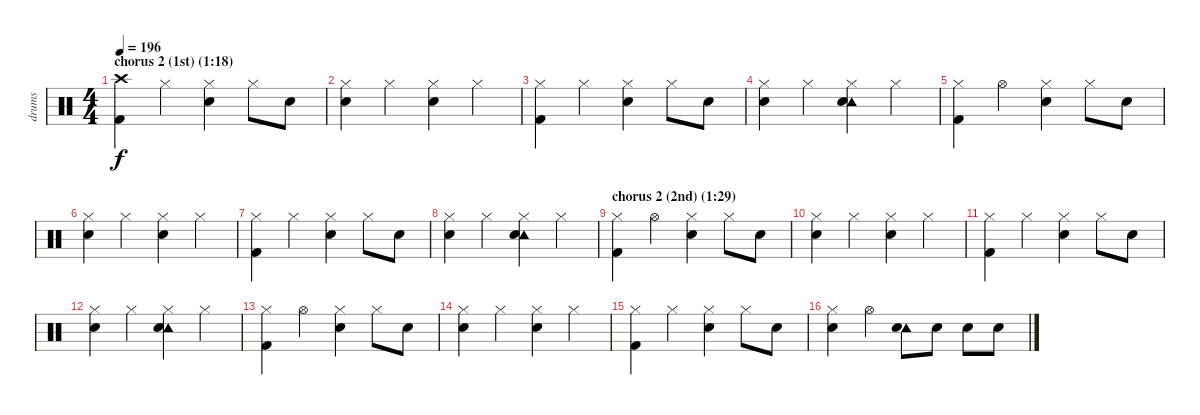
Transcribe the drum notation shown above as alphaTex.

\track ("drums" "drums") {instrument percussion}
\staff {score}
\articulation defaults
\ts (4 4)
\section ("" "chorus 2 (1st) (1:18)")
\tempo 196
\clef neutral
\ks c
("Crash high (hit)" "Kick (hit) 2").4{dy f} "Hi-Hat (closed)".4 ("Hi-Hat (closed)" "Snare (hit) 2").4 "Hi-Hat (closed)".8 "Snare (hit) 2".8 |
("Hi-Hat (closed)" "Snare (hit) 2").4 "Hi-Hat (closed)".4 ("Hi-Hat (closed)" "Snare (hit) 2").4 "Hi-Hat (closed)".4 |
("Hi-Hat (closed)" "Kick (hit) 2").4 "Hi-Hat (closed)".4 ("Hi-Hat (closed)" "Snare (hit) 2").4 "Hi-Hat (closed)".8 "Snare (hit) 2".8 |
("Hi-Hat (closed)" "Snare (hit) 2").4 "Hi-Hat (closed)".4 ("Hi-Hat (closed)" "Tambourine (hit)" "Snare (hit) 2").4 "Hi-Hat (closed)".4 |
("Hi-Hat (closed)" "Kick (hit) 2").4 "Hi-Hat (open)".4 ("Hi-Hat (closed)" "Snare (hit) 2").4 "Hi-Hat (closed)".8 "Snare (hit) 2".8 |
("Hi-Hat (closed)" "Snare (hit) 2").4 "Hi-Hat (closed)".4 ("Hi-Hat (closed)" "Snare (hit) 2").4 "Hi-Hat (closed)".4 |
("Hi-Hat (closed)" "Kick (hit) 2").4 "Hi-Hat (closed)".4 ("Hi-Hat (closed)" "Snare (hit) 2").4 "Hi-Hat (closed)".8 "Snare (hit) 2".8 |
("Hi-Hat (closed)" "Snare (hit) 2").4 "Hi-Hat (closed)".4 ("Hi-Hat (closed)" "Tambourine (hit)" "Snare (hit) 2").4 "Hi-Hat (closed)".4 |
\section ("" "chorus 2 (2nd) (1:29)")
("Hi-Hat (closed)" "Kick (hit) 2").4 "Hi-Hat (open)".4 ("Hi-Hat (closed)" "Snare (hit) 2").4 "Hi-Hat (closed)".8 "Snare (hit) 2".8 |
("Hi-Hat (closed)" "Snare (hit) 2").4 "Hi-Hat (closed)".4 ("Hi-Hat (closed)" "Snare (hit) 2").4 "Hi-Hat (closed)".4 |
("Hi-Hat (closed)" "Kick (hit) 2").4 "Hi-Hat (closed)".4 ("Hi-Hat (closed)" "Snare (hit) 2").4 "Hi-Hat (closed)".8 "Snare (hit) 2".8 |
("Hi-Hat (closed)" "Snare (hit) 2").4 "Hi-Hat (closed)".4 ("Hi-Hat (closed)" "Tambourine (hit)" "Snare (hit) 2").4 "Hi-Hat (closed)".4 |
("Hi-Hat (closed)" "Kick (hit) 2").4 "Hi-Hat (open)".4 ("Hi-Hat (closed)" "Snare (hit) 2").4 "Hi-Hat (closed)".8 "Snare (hit) 2".8 |
("Hi-Hat (closed)" "Snare (hit) 2").4 "Hi-Hat (closed)".4 ("Hi-Hat (closed)" "Snare (hit) 2").4 "Hi-Hat (closed)".4 |
("Hi-Hat (closed)" "Kick (hit) 2").4 "Hi-Hat (closed)".4 ("Hi-Hat (closed)" "Snare (hit) 2").4 "Hi-Hat (closed)".8 "Snare (hit) 2".8 |
("Hi-Hat (closed)" "Snare (hit) 2").4 "Hi-Hat (open)".4 ("Tambourine (hit)" "Snare (hit) 2").8 "Snare (hit) 2".8 "Snare (hit) 2".8 "Snare (hit) 2".8
